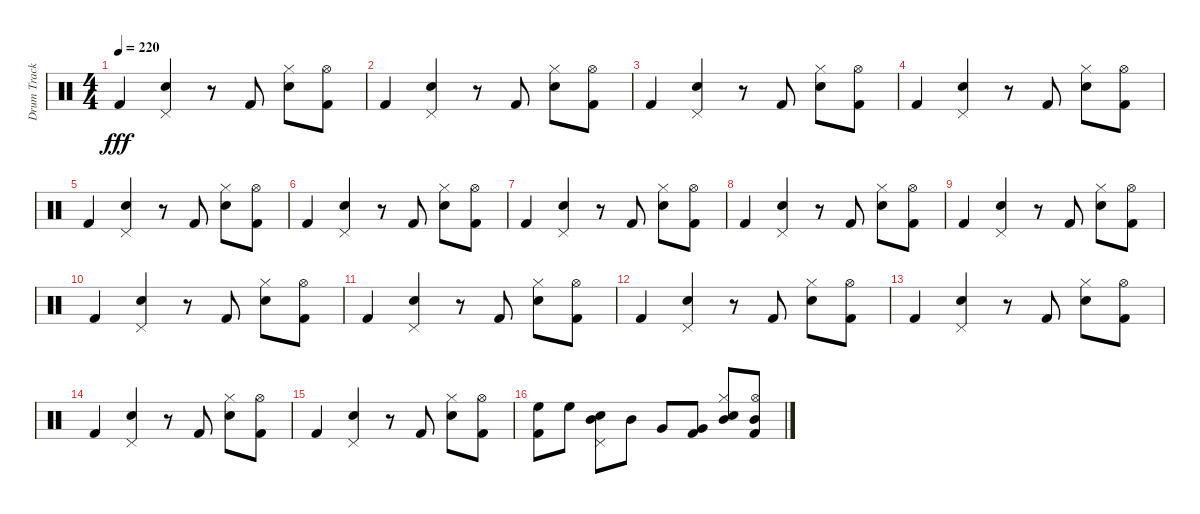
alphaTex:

\track ("Drum Track" "Drum Track") {instrument percussion}
\staff {score}
\articulation defaults
\ts (4 4)
\tempo 220
\clef neutral
\ks c "Kick (hit) 2".4{dy fff}
("Snare (hit) 2" "Pedal Hi-Hat (hit)").4 r.8 "Kick (hit) 2".8 ("Snare (hit) 2" "Hi-Hat (closed)").8 ("Kick (hit) 2" "Hi-Hat (open)").8 |
"Kick (hit) 2".4 ("Snare (hit) 2" "Pedal Hi-Hat (hit)").4 r.8 "Kick (hit) 2".8 ("Snare (hit) 2" "Hi-Hat (closed)").8 ("Kick (hit) 2" "Hi-Hat (open)").8 |
"Kick (hit) 2".4 ("Snare (hit) 2" "Pedal Hi-Hat (hit)").4 r.8 "Kick (hit) 2".8 ("Snare (hit) 2" "Hi-Hat (closed)").8 ("Kick (hit) 2" "Hi-Hat (open)").8 |
"Kick (hit) 2".4 ("Snare (hit) 2" "Pedal Hi-Hat (hit)").4 r.8 "Kick (hit) 2".8 ("Snare (hit) 2" "Hi-Hat (closed)").8 ("Kick (hit) 2" "Hi-Hat (open)").8 |
"Kick (hit) 2".4 ("Snare (hit) 2" "Pedal Hi-Hat (hit)").4 r.8 "Kick (hit) 2".8 ("Snare (hit) 2" "Hi-Hat (closed)").8 ("Kick (hit) 2" "Hi-Hat (open)").8 |
"Kick (hit) 2".4 ("Snare (hit) 2" "Pedal Hi-Hat (hit)").4 r.8 "Kick (hit) 2".8 ("Snare (hit) 2" "Hi-Hat (closed)").8 ("Kick (hit) 2" "Hi-Hat (open)").8 |
"Kick (hit) 2".4 ("Snare (hit) 2" "Pedal Hi-Hat (hit)").4 r.8 "Kick (hit) 2".8 ("Snare (hit) 2" "Hi-Hat (closed)").8 ("Kick (hit) 2" "Hi-Hat (open)").8 |
"Kick (hit) 2".4 ("Snare (hit) 2" "Pedal Hi-Hat (hit)").4 r.8 "Kick (hit) 2".8 ("Snare (hit) 2" "Hi-Hat (closed)").8 ("Kick (hit) 2" "Hi-Hat (open)").8 |
"Kick (hit) 2".4 ("Snare (hit) 2" "Pedal Hi-Hat (hit)").4 r.8 "Kick (hit) 2".8 ("Snare (hit) 2" "Hi-Hat (closed)").8 ("Kick (hit) 2" "Hi-Hat (open)").8 |
"Kick (hit) 2".4 ("Snare (hit) 2" "Pedal Hi-Hat (hit)").4 r.8 "Kick (hit) 2".8 ("Snare (hit) 2" "Hi-Hat (closed)").8 ("Kick (hit) 2" "Hi-Hat (open)").8 |
"Kick (hit) 2".4 ("Snare (hit) 2" "Pedal Hi-Hat (hit)").4 r.8 "Kick (hit) 2".8 ("Snare (hit) 2" "Hi-Hat (closed)").8 ("Kick (hit) 2" "Hi-Hat (open)").8 |
"Kick (hit) 2".4 ("Snare (hit) 2" "Pedal Hi-Hat (hit)").4 r.8 "Kick (hit) 2".8 ("Snare (hit) 2" "Hi-Hat (closed)").8 ("Kick (hit) 2" "Hi-Hat (open)").8 |
"Kick (hit) 2".4 ("Snare (hit) 2" "Pedal Hi-Hat (hit)").4 r.8 "Kick (hit) 2".8 ("Snare (hit) 2" "Hi-Hat (closed)").8 ("Kick (hit) 2" "Hi-Hat (open)").8 |
"Kick (hit) 2".4 ("Snare (hit) 2" "Pedal Hi-Hat (hit)").4 r.8 "Kick (hit) 2".8 ("Snare (hit) 2" "Hi-Hat (closed)").8 ("Kick (hit) 2" "Hi-Hat (open)").8 |
"Kick (hit) 2".4 ("Snare (hit) 2" "Pedal Hi-Hat (hit)").4 r.8 "Kick (hit) 2".8 ("Snare (hit) 2" "Hi-Hat (closed)").8 ("Kick (hit) 2" "Hi-Hat (open)").8 |
("Kick (hit) 2" "High Floor Tom (hit)").8 "High Floor Tom (hit)".8 ("Snare (hit) 2" "Pedal Hi-Hat (hit)" "Mid Tom (hit)").8 "Mid Tom (hit)".8 "Very Low Tom (hit)".8 ("Kick (hit) 2" "Very Low Tom (hit)").8 ("Snare (hit) 2" "Hi-Hat (closed)" "Mid Tom (hit)").8 ("Kick (hit) 2" "Hi-Hat (open)" "Mid Tom (hit)").8
